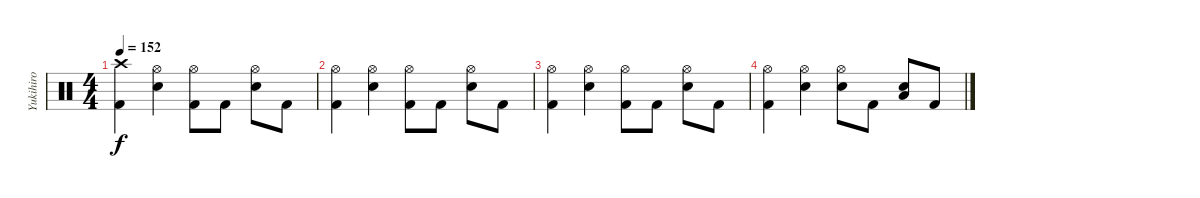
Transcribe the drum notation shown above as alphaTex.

\track ("Yukihiro" "Yukihiro") {instrument percussion}
\staff {score}
\articulation defaults
\ts (4 4)
\tempo 152
\clef neutral
\ks c
("Crash high (hit)" "Kick (hit) 2").4{dy f} ("Hi-Hat (open)" "Electric Snare (hit)").4{volume 0} ("Hi-Hat (open)" "Kick (hit) 2").8 "Kick (hit) 2".8 ("Hi-Hat (open)" "Electric Snare (hit)").8 "Kick (hit) 2".8 |
("Hi-Hat (open)" "Kick (hit) 2").4 ("Hi-Hat (open)" "Electric Snare (hit)").4 ("Hi-Hat (open)" "Kick (hit) 2").8 "Kick (hit) 2".8 ("Hi-Hat (open)" "Electric Snare (hit)").8 "Kick (hit) 2".8 |
("Hi-Hat (open)" "Kick (hit) 2").4 ("Hi-Hat (open)" "Electric Snare (hit)").4 ("Hi-Hat (open)" "Kick (hit) 2").8 "Kick (hit) 2".8 ("Hi-Hat (open)" "Electric Snare (hit)").8 "Kick (hit) 2".8 |
("Hi-Hat (open)" "Kick (hit) 2").4 ("Hi-Hat (open)" "Electric Snare (hit)").4 ("Hi-Hat (open)" "Electric Snare (hit)").8 "Kick (hit) 2".8 ("Low Tom (hit)" "Electric Snare (hit)").8 "Kick (hit) 2".8
